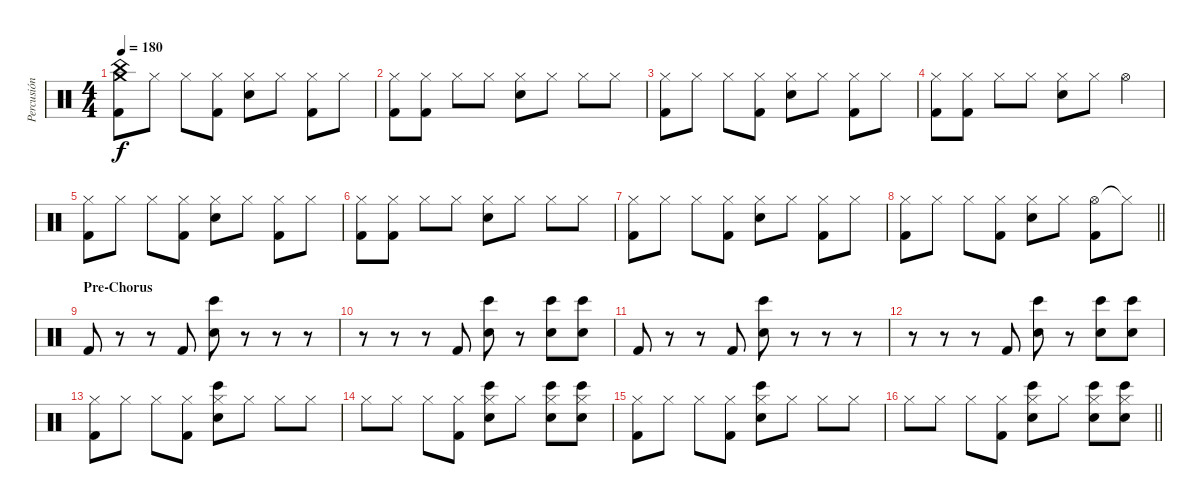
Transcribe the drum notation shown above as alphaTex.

\track ("Percusión" "Percusión") {instrument percussion}
\staff {score}
\articulation defaults
\ts (4 4)
\tempo 180
\clef neutral
\ks c
("Crash medium (hit)" "China (hit)" "Kick (hit) 2").8{dy f} "Hi-Hat (closed)".8 "Hi-Hat (closed)".8 ("Hi-Hat (closed)" "Kick (hit) 2").8 ("Hi-Hat (closed)" "Snare (hit) 2").8 "Hi-Hat (closed)".8 ("Hi-Hat (closed)" "Kick (hit) 2").8 "Hi-Hat (closed)".8 |
("Hi-Hat (closed)" "Kick (hit) 2").8 ("Hi-Hat (closed)" "Kick (hit) 2").8 "Hi-Hat (closed)".8 "Hi-Hat (closed)".8 ("Hi-Hat (closed)" "Snare (hit) 2").8 "Hi-Hat (closed)".8 "Hi-Hat (closed)".8 "Hi-Hat (closed)".8 |
("Hi-Hat (closed)" "Kick (hit) 2").8 "Hi-Hat (closed)".8 "Hi-Hat (closed)".8 ("Hi-Hat (closed)" "Kick (hit) 2").8 ("Hi-Hat (closed)" "Snare (hit) 2").8 "Hi-Hat (closed)".8 ("Hi-Hat (closed)" "Kick (hit) 2").8 "Hi-Hat (closed)".8 |
("Hi-Hat (closed)" "Kick (hit) 2").8 ("Hi-Hat (closed)" "Kick (hit) 2").8 "Hi-Hat (closed)".8 "Hi-Hat (closed)".8 ("Hi-Hat (closed)" "Snare (hit) 2").8 "Hi-Hat (closed)".8 "Hi-Hat (open)".4 |
("Hi-Hat (closed)" "Kick (hit) 2").8 "Hi-Hat (closed)".8 "Hi-Hat (closed)".8 ("Hi-Hat (closed)" "Kick (hit) 2").8 ("Hi-Hat (closed)" "Snare (hit) 2").8 "Hi-Hat (closed)".8 ("Hi-Hat (closed)" "Kick (hit) 2").8 "Hi-Hat (closed)".8 |
("Hi-Hat (closed)" "Kick (hit) 2").8 ("Hi-Hat (closed)" "Kick (hit) 2").8 "Hi-Hat (closed)".8 "Hi-Hat (closed)".8 ("Hi-Hat (closed)" "Snare (hit) 2").8 "Hi-Hat (closed)".8 "Hi-Hat (closed)".8 "Hi-Hat (closed)".8 |
("Hi-Hat (closed)" "Kick (hit) 2").8 "Hi-Hat (closed)".8 "Hi-Hat (closed)".8 ("Hi-Hat (closed)" "Kick (hit) 2").8 ("Hi-Hat (closed)" "Snare (hit) 2").8 "Hi-Hat (closed)".8 ("Hi-Hat (closed)" "Kick (hit) 2").8 "Hi-Hat (closed)".8 |
\barLineRight lightlight
("Hi-Hat (closed)" "Kick (hit) 2").8 "Hi-Hat (closed)".8 "Hi-Hat (closed)".8 ("Hi-Hat (closed)" "Kick (hit) 2").8 ("Hi-Hat (closed)" "Snare (hit) 2").8 "Hi-Hat (closed)".8 ("Hi-Hat (open)" "Kick (hit) 2").8 "Hi-Hat (closed)"{t}.8 |
\section ("" "Pre-Chorus")
"Kick (hit) 2".8 r.8 r.8 "Kick (hit) 2".8 ("Bongo High (hit)" "Snare (hit) 2").8 r.8 r.8 r.8 |
r.8 r.8 r.8 "Kick (hit) 2".8 ("Bongo High (hit)" "Snare (hit) 2").8 r.8 ("Bongo High (hit)" "Snare (hit) 2").8 ("Bongo High (hit)" "Snare (hit) 2").8 |
"Kick (hit) 2".8 r.8 r.8 "Kick (hit) 2".8 ("Bongo High (hit)" "Snare (hit) 2").8 r.8 r.8 r.8 |
r.8 r.8 r.8 "Kick (hit) 2".8 ("Bongo High (hit)" "Snare (hit) 2").8 r.8 ("Bongo High (hit)" "Snare (hit) 2").8 ("Bongo High (hit)" "Snare (hit) 2").8 |
("Hi-Hat (closed)" "Kick (hit) 2").8 "Hi-Hat (closed)".8 "Hi-Hat (closed)".8 ("Hi-Hat (closed)" "Kick (hit) 2").8 ("Hi-Hat (closed)" "Bongo High (hit)" "Snare (hit) 2").8 "Hi-Hat (closed)".8 "Hi-Hat (closed)".8 "Hi-Hat (closed)".8 |
"Hi-Hat (closed)".8 "Hi-Hat (closed)".8 "Hi-Hat (closed)".8 ("Hi-Hat (closed)" "Kick (hit) 2").8 ("Hi-Hat (closed)" "Bongo High (hit)" "Snare (hit) 2").8 "Hi-Hat (closed)".8 ("Hi-Hat (closed)" "Bongo High (hit)" "Snare (hit) 2").8 ("Hi-Hat (closed)" "Bongo High (hit)" "Snare (hit) 2").8 |
("Hi-Hat (closed)" "Kick (hit) 2").8 "Hi-Hat (closed)".8 "Hi-Hat (closed)".8 ("Hi-Hat (closed)" "Kick (hit) 2").8 ("Hi-Hat (closed)" "Bongo High (hit)" "Snare (hit) 2").8 "Hi-Hat (closed)".8 "Hi-Hat (closed)".8 "Hi-Hat (closed)".8 |
\barLineRight lightlight "Hi-Hat (closed)".8 "Hi-Hat (closed)".8 "Hi-Hat (closed)".8
("Hi-Hat (closed)" "Kick (hit) 2").8 ("Hi-Hat (closed)" "Bongo High (hit)" "Snare (hit) 2").8 "Hi-Hat (closed)".8 ("Hi-Hat (closed)" "Bongo High (hit)" "Snare (hit) 2").8 ("Hi-Hat (closed)" "Bongo High (hit)" "Snare (hit) 2").8
